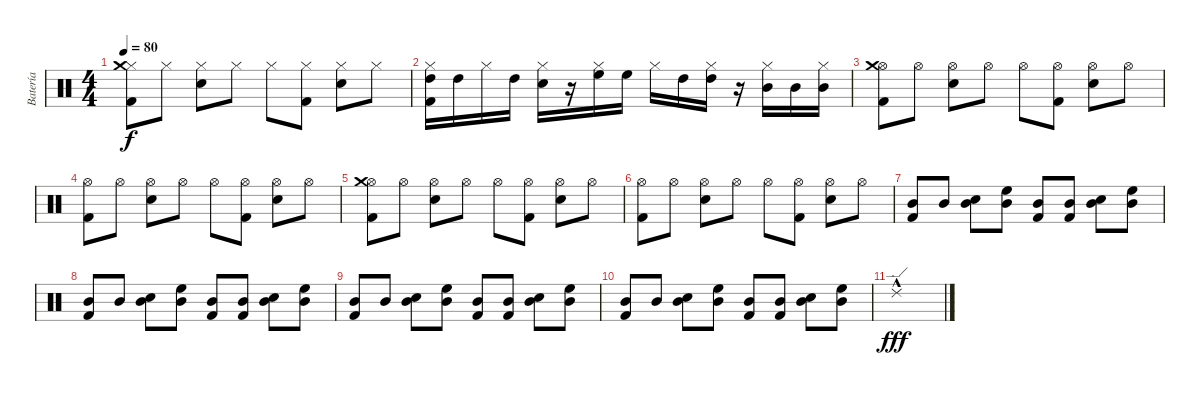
\track ("Batería" "Batería") {instrument percussion}
\staff {score}
\articulation defaults
\ts (4 4)
\tempo 80
\clef neutral
\ks c
("Hi-Hat (closed)" "Kick (hit) 2" "Crash medium (hit)").8{dy f} "Hi-Hat (closed)".8 ("Hi-Hat (closed)" "Snare (hit) 2").8 "Hi-Hat (closed)".8 "Hi-Hat (closed)".8 ("Hi-Hat (closed)" "Kick (hit) 2").8 ("Hi-Hat (closed)" "Snare (hit) 2").8 "Hi-Hat (closed)".8 |
("Hi-Hat (closed)" "High Tom (hit)" "Kick (hit) 2").16 "High Tom (hit)".16 "Hi-Hat (closed)".16 "High Tom (hit)".16 ("Hi-Hat (closed)" "Snare (hit) 2").16 r.16 ("Hi-Hat (closed)" "High Floor Tom (hit)").16 "High Floor Tom (hit)".16 "Hi-Hat (closed)".16 "High Tom (hit)".16 ("Hi-Hat (closed)" "High Tom (hit)").16 r.16 ("Hi-Hat (closed)" "Mid Tom (hit)").16 "Mid Tom (hit)".16 ("Hi-Hat (closed)" "Mid Tom (hit)").16 |
("Hi-Hat (open)" "Kick (hit) 2" "Crash medium (hit)").8 "Hi-Hat (open)".8 ("Hi-Hat (open)" "Snare (hit) 2").8 "Hi-Hat (open)".8 "Hi-Hat (open)".8 ("Hi-Hat (open)" "Kick (hit) 2").8 ("Hi-Hat (open)" "Snare (hit) 2").8 "Hi-Hat (open)".8 |
("Hi-Hat (open)" "Kick (hit) 2").8 "Hi-Hat (open)".8 ("Hi-Hat (open)" "Snare (hit) 2").8 "Hi-Hat (open)".8 "Hi-Hat (open)".8 ("Hi-Hat (open)" "Kick (hit) 2").8 ("Hi-Hat (open)" "Snare (hit) 2").8 "Hi-Hat (open)".8 |
("Hi-Hat (open)" "Kick (hit) 2" "Crash medium (hit)").8 "Hi-Hat (open)".8 ("Hi-Hat (open)" "Snare (hit) 2").8 "Hi-Hat (open)".8 "Hi-Hat (open)".8 ("Hi-Hat (open)" "Kick (hit) 2").8 ("Hi-Hat (open)" "Snare (hit) 2").8 "Hi-Hat (open)".8 |
("Hi-Hat (open)" "Kick (hit) 2").8 "Hi-Hat (open)".8 ("Hi-Hat (open)" "Snare (hit) 2").8 "Hi-Hat (open)".8 "Hi-Hat (open)".8 ("Hi-Hat (open)" "Kick (hit) 2").8 ("Hi-Hat (open)" "Snare (hit) 2").8 "Hi-Hat (open)".8 |
("Mid Tom (hit)" "Kick (hit) 2").8 "Mid Tom (hit)".8 ("Mid Tom (hit)" "Snare (hit) 2").8 ("Mid Tom (hit)" "High Floor Tom (hit)").8 ("Mid Tom (hit)" "Kick (hit) 2").8 ("Mid Tom (hit)" "Kick (hit) 2").8 ("Mid Tom (hit)" "Snare (hit) 2").8 ("Mid Tom (hit)" "High Floor Tom (hit)").8 |
("Mid Tom (hit)" "Kick (hit) 2").8 "Mid Tom (hit)".8 ("Mid Tom (hit)" "Snare (hit) 2").8 ("Mid Tom (hit)" "High Floor Tom (hit)").8 ("Mid Tom (hit)" "Kick (hit) 2").8 ("Mid Tom (hit)" "Kick (hit) 2").8 ("Mid Tom (hit)" "Snare (hit) 2").8 ("Mid Tom (hit)" "High Floor Tom (hit)").8 |
("Mid Tom (hit)" "Kick (hit) 2").8 "Mid Tom (hit)".8 ("Mid Tom (hit)" "Snare (hit) 2").8 ("Mid Tom (hit)" "High Floor Tom (hit)").8 ("Mid Tom (hit)" "Kick (hit) 2").8 ("Mid Tom (hit)" "Kick (hit) 2").8 ("Mid Tom (hit)" "Snare (hit) 2").8 ("Mid Tom (hit)" "High Floor Tom (hit)").8 |
("Mid Tom (hit)" "Kick (hit) 2").8 "Mid Tom (hit)".8 ("Mid Tom (hit)" "Snare (hit) 2").8 ("Mid Tom (hit)" "High Floor Tom (hit)").8 ("Mid Tom (hit)" "Kick (hit) 2").8 ("Mid Tom (hit)" "Kick (hit) 2").8 ("Mid Tom (hit)" "Snare (hit) 2").8 ("Mid Tom (hit)" "High Floor Tom (hit)").8 |
"Ride (edge) 2"{hac}.1{dy fff}
